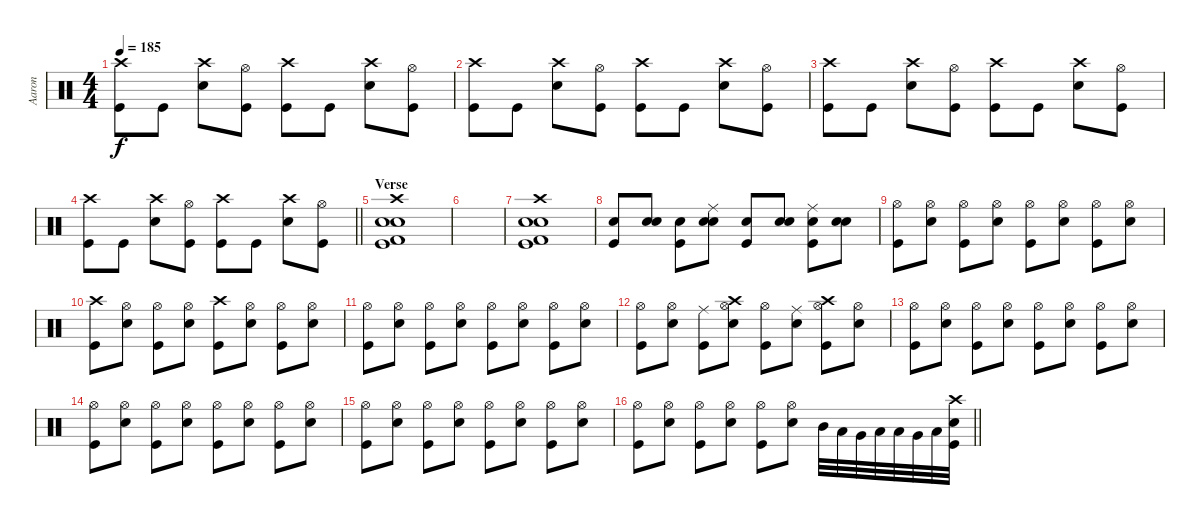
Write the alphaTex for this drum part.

\track ("Aaron" "Aaron") {instrument percussion}
\staff {score}
\articulation defaults
\ts (4 4)
\tempo 185
\clef neutral
\ks c
("Crash high (hit)" "Kick (hit)").8{dy f} "Kick (hit)".8 ("Crash high (hit)" "Snare (hit) 2").8 ("Hi-Hat (open)" "Kick (hit)").8 ("Crash high (hit)" "Kick (hit)").8 "Kick (hit)".8 ("Crash high (hit)" "Snare (hit) 2").8 ("Hi-Hat (open)" "Kick (hit)").8 |
("Crash high (hit)" "Kick (hit)").8 "Kick (hit)".8 ("Crash high (hit)" "Snare (hit) 2").8 ("Hi-Hat (open)" "Kick (hit)").8 ("Crash high (hit)" "Kick (hit)").8 "Kick (hit)".8 ("Crash high (hit)" "Snare (hit) 2").8 ("Hi-Hat (open)" "Kick (hit)").8 |
("Crash high (hit)" "Kick (hit)").8 "Kick (hit)".8 ("Crash high (hit)" "Snare (hit) 2").8 ("Hi-Hat (open)" "Kick (hit)").8 ("Crash high (hit)" "Kick (hit)").8 "Kick (hit)".8 ("Crash high (hit)" "Snare (hit) 2").8 ("Hi-Hat (open)" "Kick (hit)").8 |
\barLineRight lightlight
("Crash high (hit)" "Kick (hit)").8 "Kick (hit)".8 ("Crash high (hit)" "Snare (hit) 2").8 ("Hi-Hat (open)" "Kick (hit)").8 ("Crash high (hit)" "Kick (hit)").8 "Kick (hit)".8 ("Crash high (hit)" "Snare (hit) 2").8 ("Hi-Hat (open)" "Kick (hit)").8 |
\section ("" "Verse")
("Electric Snare (hit)" "Snare (hit) 2" "Kick (hit) 2" "Kick (hit)" "Crash high (hit)").1 |
|
("Electric Snare (hit)" "Snare (hit) 2" "Kick (hit) 2" "Kick (hit)" "Crash high (hit)").1 |
("Snare (hit) 2" "Kick (hit)").8 ("Snare (hit) 2" "Snare (hit) 2").8 ("Snare (hit) 2" "Kick (hit)").8 ("Ride (middle)" "Snare (hit) 2" "Snare (hit) 2").8 ("Snare (hit) 2" "Kick (hit)").8 ("Snare (hit) 2" "Snare (hit) 2").8 ("Ride (middle)" "Snare (hit) 2" "Kick (hit)").8 ("Snare (hit) 2" "Snare (hit) 2").8 |
("Hi-Hat (open)" "Kick (hit)").8 ("Hi-Hat (open)" "Snare (hit) 2").8 ("Hi-Hat (open)" "Kick (hit)").8 ("Hi-Hat (open)" "Snare (hit) 2").8 ("Hi-Hat (open)" "Kick (hit)").8 ("Hi-Hat (open)" "Snare (hit) 2").8 ("Hi-Hat (open)" "Kick (hit)").8 ("Hi-Hat (open)" "Snare (hit) 2").8 |
("Crash high (hit)" "Kick (hit)").8 ("Hi-Hat (open)" "Snare (hit) 2").8 ("Hi-Hat (open)" "Kick (hit)").8 ("Hi-Hat (open)" "Snare (hit) 2").8 ("Crash high (hit)" "Kick (hit)").8 ("Hi-Hat (open)" "Snare (hit) 2").8 ("Hi-Hat (open)" "Kick (hit)").8 ("Hi-Hat (open)" "Snare (hit) 2").8 |
("Hi-Hat (open)" "Kick (hit)").8 ("Hi-Hat (open)" "Snare (hit) 2").8 ("Hi-Hat (open)" "Kick (hit)").8 ("Hi-Hat (open)" "Snare (hit) 2").8 ("Hi-Hat (open)" "Kick (hit)").8 ("Hi-Hat (open)" "Snare (hit) 2").8 ("Hi-Hat (open)" "Kick (hit)").8 ("Hi-Hat (open)" "Snare (hit) 2").8 |
("Hi-Hat (open)" "Kick (hit)").8 ("Hi-Hat (open)" "Snare (hit) 2").8 ("Ride (middle)" "Kick (hit)").8 ("Crash high (hit)" "Hi-Hat (open)" "Snare (hit) 2").8 ("Hi-Hat (open)" "Kick (hit)").8 ("Ride (middle)" "Snare (hit) 2").8 ("Crash high (hit)" "Hi-Hat (open)" "Kick (hit)").8 ("Hi-Hat (open)" "Snare (hit) 2").8 |
("Hi-Hat (open)" "Kick (hit)").8 ("Hi-Hat (open)" "Snare (hit) 2").8 ("Hi-Hat (open)" "Kick (hit)").8 ("Hi-Hat (open)" "Snare (hit) 2").8 ("Hi-Hat (open)" "Kick (hit)").8 ("Hi-Hat (open)" "Snare (hit) 2").8 ("Hi-Hat (open)" "Kick (hit)").8 ("Hi-Hat (open)" "Snare (hit) 2").8 |
("Hi-Hat (open)" "Kick (hit)").8 ("Hi-Hat (open)" "Snare (hit) 2").8 ("Hi-Hat (open)" "Kick (hit)").8 ("Hi-Hat (open)" "Snare (hit) 2").8 ("Hi-Hat (open)" "Kick (hit)").8 ("Hi-Hat (open)" "Snare (hit) 2").8 ("Hi-Hat (open)" "Kick (hit)").8 ("Hi-Hat (open)" "Snare (hit) 2").8 |
("Hi-Hat (open)" "Kick (hit)").8 ("Hi-Hat (open)" "Snare (hit) 2").8 ("Hi-Hat (open)" "Kick (hit)").8 ("Hi-Hat (open)" "Snare (hit) 2").8 ("Hi-Hat (open)" "Kick (hit)").8 ("Hi-Hat (open)" "Snare (hit) 2").8 ("Hi-Hat (open)" "Kick (hit)").8 ("Hi-Hat (open)" "Snare (hit) 2").8 |
\barLineRight lightlight
("Hi-Hat (open)" "Kick (hit)").8 ("Hi-Hat (open)" "Snare (hit) 2").8 ("Hi-Hat (open)" "Kick (hit)").8 ("Hi-Hat (open)" "Snare (hit) 2").8 ("Hi-Hat (open)" "Kick (hit)").8 ("Hi-Hat (open)" "Snare (hit) 2").8 "Mid Tom (hit)".32 "Low Tom (hit)".32 "Very Low Tom (hit)".32 "Low Floor Tom (hit)".32 "Low Tom (hit)".32 "Very Low Tom (hit)".32 "Low Floor Tom (hit)".32 ("Kick (hit)" "Snare (hit) 2" "Crash high (hit)").32
